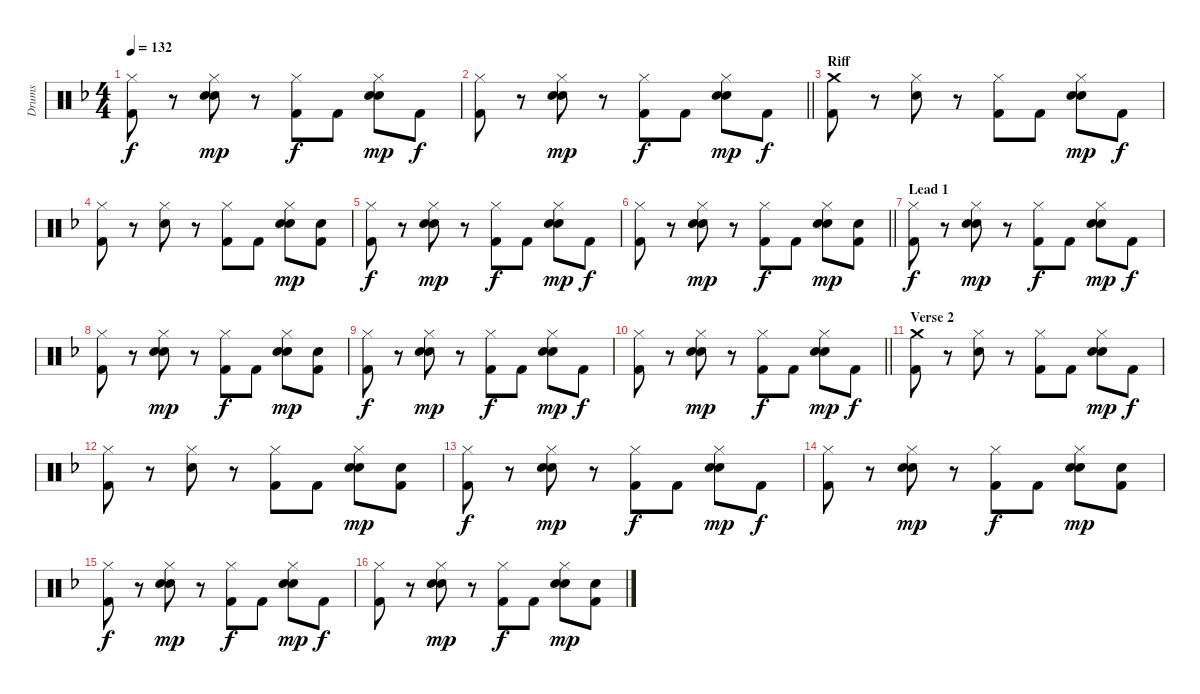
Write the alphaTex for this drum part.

\track ("Drums" "Drums") {instrument percussion}
\staff {score}
\articulation defaults
\ts (4 4)
\tempo 132
\clef neutral
\ks f
("Hi-Hat (closed)" "Kick (hit) 2").8{dy f} r.8 ("Hi-Hat (closed)" "Hand Clap (hit)" "Snare (hit) 2").8{dy mp} r.8 ("Hi-Hat (closed)" "Kick (hit) 2").8{dy f} "Kick (hit) 2".8 ("Hi-Hat (closed)" "Hand Clap (hit)" "Snare (hit) 2").8{dy mp} "Kick (hit) 2".8{dy f} |
\barLineRight lightlight
("Hi-Hat (closed)" "Kick (hit) 2").8 r.8 ("Hi-Hat (closed)" "Hand Clap (hit)" "Snare (hit) 2").8{dy mp} r.8 ("Hi-Hat (closed)" "Kick (hit) 2").8{dy f} "Kick (hit) 2".8 ("Hi-Hat (closed)" "Hand Clap (hit)" "Snare (hit) 2").8{dy mp} "Kick (hit) 2".8{dy f} |
\section ("" "Riff")
("Crash medium (hit)" "Kick (hit) 2").8 r.8 ("Hi-Hat (closed)" "Snare (hit) 2").8 r.8 ("Hi-Hat (closed)" "Kick (hit) 2").8 "Kick (hit) 2".8 ("Hi-Hat (closed)" "Hand Clap (hit)" "Snare (hit) 2").8{dy mp} "Kick (hit) 2".8{dy f} |
("Hi-Hat (closed)" "Kick (hit) 2").8 r.8 ("Hi-Hat (closed)" "Snare (hit) 2").8 r.8 ("Hi-Hat (closed)" "Kick (hit) 2").8 "Kick (hit) 2".8 ("Hi-Hat (closed)" "Hand Clap (hit)" "Snare (hit) 2").8{dy mp} ("Hand Clap (hit)" "Kick (hit) 2").8 |
("Hi-Hat (closed)" "Kick (hit) 2").8{dy f} r.8 ("Hi-Hat (closed)" "Hand Clap (hit)" "Snare (hit) 2").8{dy mp} r.8 ("Hi-Hat (closed)" "Kick (hit) 2").8{dy f} "Kick (hit) 2".8 ("Hi-Hat (closed)" "Hand Clap (hit)" "Snare (hit) 2").8{dy mp} "Kick (hit) 2".8{dy f} |
\barLineRight lightlight
("Hi-Hat (closed)" "Kick (hit) 2").8 r.8 ("Hi-Hat (closed)" "Hand Clap (hit)" "Snare (hit) 2").8{dy mp} r.8 ("Hi-Hat (closed)" "Kick (hit) 2").8{dy f} "Kick (hit) 2".8 ("Hi-Hat (closed)" "Hand Clap (hit)" "Snare (hit) 2").8{dy mp} ("Hand Clap (hit)" "Kick (hit) 2").8 |
\section ("" "Lead 1")
("Hi-Hat (closed)" "Kick (hit) 2").8{dy f} r.8 ("Hi-Hat (closed)" "Hand Clap (hit)" "Snare (hit) 2").8{dy mp} r.8 ("Hi-Hat (closed)" "Kick (hit) 2").8{dy f} "Kick (hit) 2".8 ("Hi-Hat (closed)" "Hand Clap (hit)" "Snare (hit) 2").8{dy mp} "Kick (hit) 2".8{dy f} |
("Hi-Hat (closed)" "Kick (hit) 2").8 r.8 ("Hi-Hat (closed)" "Hand Clap (hit)" "Snare (hit) 2").8{dy mp} r.8 ("Hi-Hat (closed)" "Kick (hit) 2").8{dy f} "Kick (hit) 2".8 ("Hi-Hat (closed)" "Hand Clap (hit)" "Snare (hit) 2").8{dy mp} ("Hand Clap (hit)" "Kick (hit) 2").8 |
("Hi-Hat (closed)" "Kick (hit) 2").8{dy f} r.8 ("Hi-Hat (closed)" "Hand Clap (hit)" "Snare (hit) 2").8{dy mp} r.8 ("Hi-Hat (closed)" "Kick (hit) 2").8{dy f} "Kick (hit) 2".8 ("Hi-Hat (closed)" "Hand Clap (hit)" "Snare (hit) 2").8{dy mp} "Kick (hit) 2".8{dy f} |
\barLineRight lightlight
("Hi-Hat (closed)" "Kick (hit) 2").8 r.8 ("Hi-Hat (closed)" "Hand Clap (hit)" "Snare (hit) 2").8{dy mp} r.8 ("Hi-Hat (closed)" "Kick (hit) 2").8{dy f} "Kick (hit) 2".8 ("Hi-Hat (closed)" "Hand Clap (hit)" "Snare (hit) 2").8{dy mp} "Kick (hit) 2".8{dy f} |
\section ("" "Verse 2")
("Crash medium (hit)" "Kick (hit) 2").8 r.8 ("Hi-Hat (closed)" "Snare (hit) 2").8 r.8 ("Hi-Hat (closed)" "Kick (hit) 2").8 "Kick (hit) 2".8 ("Hi-Hat (closed)" "Hand Clap (hit)" "Snare (hit) 2").8{dy mp} "Kick (hit) 2".8{dy f} |
("Hi-Hat (closed)" "Kick (hit) 2").8 r.8 ("Hi-Hat (closed)" "Snare (hit) 2").8 r.8 ("Hi-Hat (closed)" "Kick (hit) 2").8 "Kick (hit) 2".8 ("Hi-Hat (closed)" "Hand Clap (hit)" "Snare (hit) 2").8{dy mp} ("Hand Clap (hit)" "Kick (hit) 2").8 |
("Hi-Hat (closed)" "Kick (hit) 2").8{dy f} r.8 ("Hi-Hat (closed)" "Hand Clap (hit)" "Snare (hit) 2").8{dy mp} r.8 ("Hi-Hat (closed)" "Kick (hit) 2").8{dy f} "Kick (hit) 2".8 ("Hi-Hat (closed)" "Hand Clap (hit)" "Snare (hit) 2").8{dy mp} "Kick (hit) 2".8{dy f} |
("Hi-Hat (closed)" "Kick (hit) 2").8 r.8 ("Hi-Hat (closed)" "Hand Clap (hit)" "Snare (hit) 2").8{dy mp} r.8 ("Hi-Hat (closed)" "Kick (hit) 2").8{dy f} "Kick (hit) 2".8 ("Hi-Hat (closed)" "Hand Clap (hit)" "Snare (hit) 2").8{dy mp} ("Hand Clap (hit)" "Kick (hit) 2").8 |
("Hi-Hat (closed)" "Kick (hit) 2").8{dy f} r.8 ("Hi-Hat (closed)" "Hand Clap (hit)" "Snare (hit) 2").8{dy mp} r.8 ("Hi-Hat (closed)" "Kick (hit) 2").8{dy f} "Kick (hit) 2".8 ("Hi-Hat (closed)" "Hand Clap (hit)" "Snare (hit) 2").8{dy mp} "Kick (hit) 2".8{dy f} |
("Hi-Hat (closed)" "Kick (hit) 2").8 r.8 ("Hi-Hat (closed)" "Hand Clap (hit)" "Snare (hit) 2").8{dy mp} r.8 ("Hi-Hat (closed)" "Kick (hit) 2").8{dy f} "Kick (hit) 2".8 ("Hi-Hat (closed)" "Hand Clap (hit)" "Snare (hit) 2").8{dy mp} ("Hand Clap (hit)" "Kick (hit) 2").8
